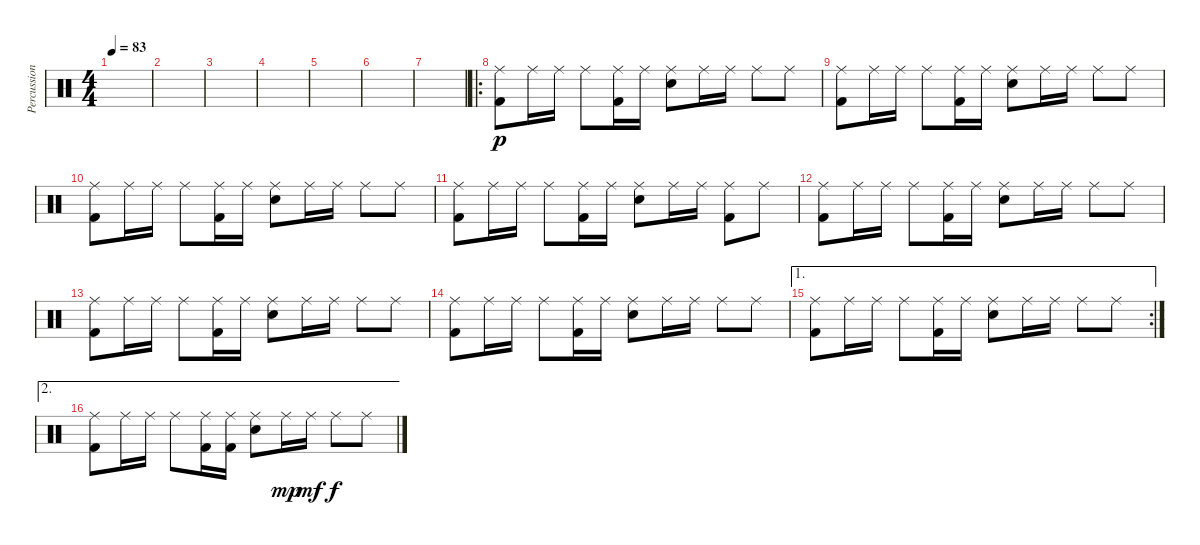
\track ("Percussion" "Percussion") {instrument percussion}
\staff {score}
\articulation defaults
\ts (4 4)
\tempo 83
\clef neutral
\ks c
|
|
|
|
|
|
|
\ro
("Ride (middle)" "Kick (hit) 2").8{dy p} "Ride (middle)".16 "Ride (middle)".16 "Ride (middle)".8 ("Ride (middle)" "Kick (hit) 2").16 "Ride (middle)".16 ("Ride (middle)" "Electric Snare (hit)").8 "Ride (middle)".16 "Ride (middle)".16 "Ride (middle)".8 "Ride (middle)".8 |
("Ride (middle)" "Kick (hit) 2").8 "Ride (middle)".16 "Ride (middle)".16 "Ride (middle)".8 ("Ride (middle)" "Kick (hit) 2").16 "Ride (middle)".16 ("Ride (middle)" "Electric Snare (hit)").8 "Ride (middle)".16 "Ride (middle)".16 "Ride (middle)".8 "Ride (middle)".8 |
("Ride (middle)" "Kick (hit) 2").8 "Ride (middle)".16 "Ride (middle)".16 "Ride (middle)".8 ("Ride (middle)" "Kick (hit) 2").16 "Ride (middle)".16 ("Ride (middle)" "Electric Snare (hit)").8 "Ride (middle)".16 "Ride (middle)".16 "Ride (middle)".8 "Ride (middle)".8 |
("Ride (middle)" "Kick (hit) 2").8 "Ride (middle)".16 "Ride (middle)".16 "Ride (middle)".8 ("Ride (middle)" "Kick (hit) 2").16 "Ride (middle)".16 ("Ride (middle)" "Electric Snare (hit)").8 "Ride (middle)".16 "Ride (middle)".16 ("Ride (middle)" "Kick (hit) 2").8 "Ride (middle)".8 |
("Ride (middle)" "Kick (hit) 2").8 "Ride (middle)".16 "Ride (middle)".16 "Ride (middle)".8 ("Ride (middle)" "Kick (hit) 2").16 "Ride (middle)".16 ("Ride (middle)" "Electric Snare (hit)").8 "Ride (middle)".16 "Ride (middle)".16 "Ride (middle)".8 "Ride (middle)".8 |
("Ride (middle)" "Kick (hit) 2").8 "Ride (middle)".16 "Ride (middle)".16 "Ride (middle)".8 ("Ride (middle)" "Kick (hit) 2").16 "Ride (middle)".16 ("Ride (middle)" "Electric Snare (hit)").8 "Ride (middle)".16 "Ride (middle)".16 "Ride (middle)".8 "Ride (middle)".8 |
("Ride (middle)" "Kick (hit) 2").8 "Ride (middle)".16 "Ride (middle)".16 "Ride (middle)".8 ("Ride (middle)" "Kick (hit) 2").16 "Ride (middle)".16 ("Ride (middle)" "Electric Snare (hit)").8 "Ride (middle)".16 "Ride (middle)".16 "Ride (middle)".8 "Ride (middle)".8 |
\ae 1
\rc 2
("Ride (middle)" "Kick (hit) 2").8 "Ride (middle)".16 "Ride (middle)".16 "Ride (middle)".8 ("Ride (middle)" "Kick (hit) 2").16 "Ride (middle)".16 ("Ride (middle)" "Electric Snare (hit)").8 "Ride (middle)".16 "Ride (middle)".16 "Ride (middle)".8 "Ride (middle)".8 |
\ae 2
("Ride (middle)" "Kick (hit) 2").8 "Ride (middle)".16 "Ride (middle)".16 "Ride (middle)".8 ("Ride (middle)" "Kick (hit) 2").16 ("Ride (middle)" "Kick (hit) 2").16 ("Ride (middle)" "Electric Snare (hit)").8 "Ride (middle)".16{dy mp} "Ride (middle)".16{dy mf} "Ride (middle)".8{dy f} "Ride (middle)".8
